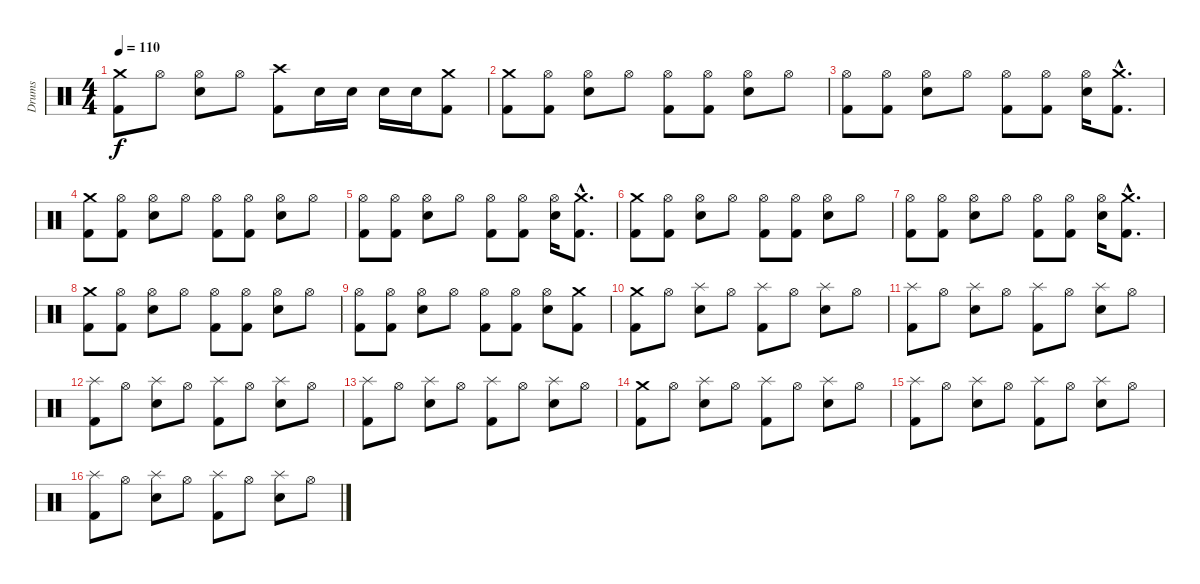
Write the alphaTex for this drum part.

\track ("Drums" "Drums") {instrument percussion}
\staff {score}
\articulation defaults
\ts (4 4)
\tempo 110
\clef neutral
\ks c
("Crash medium (hit)" "Kick (hit) 2").8{dy f} "Hi-Hat (open)".8 ("Hi-Hat (open)" "Snare (hit) 2").8 "Hi-Hat (open)".8 ("Crash high (hit)" "Kick (hit) 2").8 "Snare (hit) 2".16 "Snare (hit) 2".16 "Snare (hit) 2".16 "Snare (hit) 2".16 ("Crash medium (hit)" "Kick (hit) 2").8 |
("Crash medium (hit)" "Kick (hit) 2").8 ("Hi-Hat (open)" "Kick (hit) 2").8 ("Hi-Hat (open)" "Snare (hit) 2").8 "Hi-Hat (open)".8 ("Hi-Hat (open)" "Kick (hit) 2").8 ("Hi-Hat (open)" "Kick (hit) 2").8 ("Hi-Hat (open)" "Snare (hit) 2").8 "Hi-Hat (open)".8 |
("Hi-Hat (open)" "Kick (hit) 2").8 ("Hi-Hat (open)" "Kick (hit) 2").8 ("Hi-Hat (open)" "Snare (hit) 2").8 "Hi-Hat (open)".8 ("Hi-Hat (open)" "Kick (hit) 2").8 ("Hi-Hat (open)" "Kick (hit) 2").8 ("Hi-Hat (open)" "Snare (hit) 2").16 ("Crash medium (hit)"{hac} "Kick (hit) 2"{hac}).8{d} |
("Crash medium (hit)" "Kick (hit) 2").8 ("Hi-Hat (open)" "Kick (hit) 2").8 ("Hi-Hat (open)" "Snare (hit) 2").8 "Hi-Hat (open)".8 ("Hi-Hat (open)" "Kick (hit) 2").8 ("Hi-Hat (open)" "Kick (hit) 2").8 ("Hi-Hat (open)" "Snare (hit) 2").8 "Hi-Hat (open)".8 |
("Hi-Hat (open)" "Kick (hit) 2").8 ("Hi-Hat (open)" "Kick (hit) 2").8 ("Hi-Hat (open)" "Snare (hit) 2").8 "Hi-Hat (open)".8 ("Hi-Hat (open)" "Kick (hit) 2").8 ("Hi-Hat (open)" "Kick (hit) 2").8 ("Hi-Hat (open)" "Snare (hit) 2").16 ("Crash medium (hit)"{hac} "Kick (hit) 2"{hac}).8{d} |
("Crash medium (hit)" "Kick (hit) 2").8 ("Hi-Hat (open)" "Kick (hit) 2").8 ("Hi-Hat (open)" "Snare (hit) 2").8 "Hi-Hat (open)".8 ("Hi-Hat (open)" "Kick (hit) 2").8 ("Hi-Hat (open)" "Kick (hit) 2").8 ("Hi-Hat (open)" "Snare (hit) 2").8 "Hi-Hat (open)".8 |
("Hi-Hat (open)" "Kick (hit) 2").8 ("Hi-Hat (open)" "Kick (hit) 2").8 ("Hi-Hat (open)" "Snare (hit) 2").8 "Hi-Hat (open)".8 ("Hi-Hat (open)" "Kick (hit) 2").8 ("Hi-Hat (open)" "Kick (hit) 2").8 ("Hi-Hat (open)" "Snare (hit) 2").16 ("Crash medium (hit)"{hac} "Kick (hit) 2"{hac}).8{d} |
("Crash medium (hit)" "Kick (hit) 2").8 ("Hi-Hat (open)" "Kick (hit) 2").8 ("Hi-Hat (open)" "Snare (hit) 2").8 "Hi-Hat (open)".8 ("Hi-Hat (open)" "Kick (hit) 2").8 ("Hi-Hat (open)" "Kick (hit) 2").8 ("Hi-Hat (open)" "Snare (hit) 2").8 "Hi-Hat (open)".8 |
("Hi-Hat (open)" "Kick (hit) 2").8 ("Hi-Hat (open)" "Kick (hit) 2").8 ("Hi-Hat (open)" "Snare (hit) 2").8 "Hi-Hat (open)".8 ("Hi-Hat (open)" "Kick (hit) 2").8 ("Hi-Hat (open)" "Kick (hit) 2").8 ("Hi-Hat (open)" "Snare (hit) 2").8 ("Crash medium (hit)" "Kick (hit) 2").8 |
("Crash medium (hit)" "Kick (hit) 2").8 "Hi-Hat (open)".8 ("Splash (hit)" "Snare (hit) 2").8 "Hi-Hat (open)".8 ("Splash (hit)" "Kick (hit) 2").8 "Hi-Hat (open)".8 ("Splash (hit)" "Snare (hit) 2").8 "Hi-Hat (open)".8 |
("Splash (hit)" "Kick (hit) 2").8 "Hi-Hat (open)".8 ("Splash (hit)" "Snare (hit) 2").8 "Hi-Hat (open)".8 ("Splash (hit)" "Kick (hit) 2").8 "Hi-Hat (open)".8 ("Splash (hit)" "Snare (hit) 2").8 "Hi-Hat (open)".8 |
("Splash (hit)" "Kick (hit) 2").8 "Hi-Hat (open)".8 ("Splash (hit)" "Snare (hit) 2").8 "Hi-Hat (open)".8 ("Splash (hit)" "Kick (hit) 2").8 "Hi-Hat (open)".8 ("Splash (hit)" "Snare (hit) 2").8 "Hi-Hat (open)".8 |
("Splash (hit)" "Kick (hit) 2").8 "Hi-Hat (open)".8 ("Splash (hit)" "Snare (hit) 2").8 "Hi-Hat (open)".8 ("Splash (hit)" "Kick (hit) 2").8 "Hi-Hat (open)".8 ("Splash (hit)" "Snare (hit) 2").8 "Hi-Hat (open)".8 |
("Crash medium (hit)" "Kick (hit) 2").8 "Hi-Hat (open)".8 ("Splash (hit)" "Snare (hit) 2").8 "Hi-Hat (open)".8 ("Splash (hit)" "Kick (hit) 2").8 "Hi-Hat (open)".8 ("Splash (hit)" "Snare (hit) 2").8 "Hi-Hat (open)".8 |
("Splash (hit)" "Kick (hit) 2").8 "Hi-Hat (open)".8 ("Splash (hit)" "Snare (hit) 2").8 "Hi-Hat (open)".8 ("Splash (hit)" "Kick (hit) 2").8 "Hi-Hat (open)".8 ("Splash (hit)" "Snare (hit) 2").8 "Hi-Hat (open)".8 |
("Splash (hit)" "Kick (hit) 2").8 "Hi-Hat (open)".8 ("Splash (hit)" "Snare (hit) 2").8 "Hi-Hat (open)".8 ("Splash (hit)" "Kick (hit) 2").8 "Hi-Hat (open)".8 ("Splash (hit)" "Snare (hit) 2").8 "Hi-Hat (open)".8
